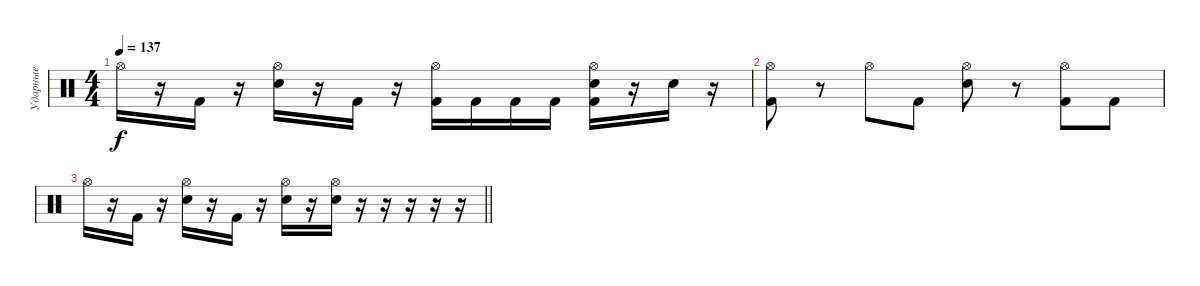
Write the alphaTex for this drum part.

\track ("Ударные" "Ударные") {instrument percussion}
\staff {score}
\articulation defaults
\ts (4 4)
\tempo 137
\clef neutral
\ks c "Hi-Hat (open)".16{dy f}
r.16 "Kick (hit) 2".16 r.16 ("Hi-Hat (open)" "Snare (hit) 2").16 r.16 "Kick (hit) 2".16 r.16 ("Hi-Hat (open)" "Kick (hit) 2").16 "Kick (hit) 2".16 "Kick (hit) 2".16 "Kick (hit) 2".16 ("Hi-Hat (open)" "Snare (hit) 2" "Kick (hit) 2").16 r.16 "Snare (hit) 2".16 r.16 |
("Hi-Hat (open)" "Kick (hit) 2").8 r.8 "Hi-Hat (open)".8 "Kick (hit) 2".8 ("Hi-Hat (open)" "Snare (hit) 2").8 r.8 ("Hi-Hat (open)" "Kick (hit) 2").8 "Kick (hit) 2".8 |
\barLineRight lightlight "Hi-Hat (open)".16
r.16 "Kick (hit) 2".16 r.16 ("Hi-Hat (open)" "Snare (hit) 2").16 r.16 "Kick (hit) 2".16 r.16 ("Hi-Hat (open)" "Snare (hit) 2").16 r.16 ("Hi-Hat (open)" "Snare (hit) 2").16 r.16 r.16 r.16 r.16 r.16
